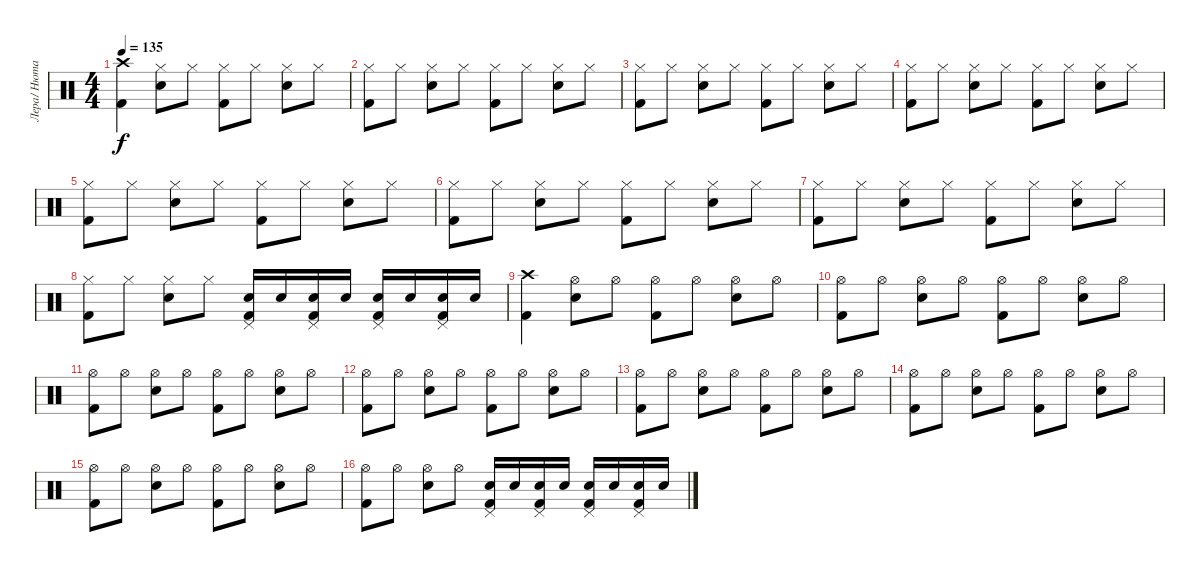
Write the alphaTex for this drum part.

\track ("Лера/ Нюта" "Лера/ Нюта") {instrument percussion}
\staff {score}
\articulation defaults
\ts (4 4)
\tempo 135
\clef neutral
\ks c
("Crash high (hit)" "Kick (hit) 2").4{dy f} ("Hi-Hat (closed)" "Electric Snare (hit)").8 "Hi-Hat (closed)".8 ("Hi-Hat (closed)" "Kick (hit) 2").8 "Hi-Hat (closed)".8 ("Hi-Hat (closed)" "Electric Snare (hit)").8 "Hi-Hat (closed)".8 |
("Hi-Hat (closed)" "Kick (hit) 2").8 "Hi-Hat (closed)".8 ("Hi-Hat (closed)" "Electric Snare (hit)").8 "Hi-Hat (closed)".8 ("Hi-Hat (closed)" "Kick (hit) 2").8 "Hi-Hat (closed)".8 ("Hi-Hat (closed)" "Electric Snare (hit)").8 "Hi-Hat (closed)".8 |
("Hi-Hat (closed)" "Kick (hit) 2").8 "Hi-Hat (closed)".8 ("Hi-Hat (closed)" "Electric Snare (hit)").8 "Hi-Hat (closed)".8 ("Hi-Hat (closed)" "Kick (hit) 2").8 "Hi-Hat (closed)".8 ("Hi-Hat (closed)" "Electric Snare (hit)").8 "Hi-Hat (closed)".8 |
("Hi-Hat (closed)" "Kick (hit) 2").8 "Hi-Hat (closed)".8 ("Hi-Hat (closed)" "Electric Snare (hit)").8 "Hi-Hat (closed)".8 ("Hi-Hat (closed)" "Kick (hit) 2").8 "Hi-Hat (closed)".8 ("Hi-Hat (closed)" "Electric Snare (hit)").8 "Hi-Hat (closed)".8 |
("Hi-Hat (closed)" "Kick (hit) 2").8 "Hi-Hat (closed)".8 ("Hi-Hat (closed)" "Electric Snare (hit)").8 "Hi-Hat (closed)".8 ("Hi-Hat (closed)" "Kick (hit) 2").8 "Hi-Hat (closed)".8 ("Hi-Hat (closed)" "Electric Snare (hit)").8 "Hi-Hat (closed)".8 |
("Hi-Hat (closed)" "Kick (hit) 2").8 "Hi-Hat (closed)".8 ("Hi-Hat (closed)" "Electric Snare (hit)").8 "Hi-Hat (closed)".8 ("Hi-Hat (closed)" "Kick (hit) 2").8 "Hi-Hat (closed)".8 ("Hi-Hat (closed)" "Electric Snare (hit)").8 "Hi-Hat (closed)".8 |
("Hi-Hat (closed)" "Kick (hit) 2").8 "Hi-Hat (closed)".8 ("Hi-Hat (closed)" "Electric Snare (hit)").8 "Hi-Hat (closed)".8 ("Hi-Hat (closed)" "Kick (hit) 2").8 "Hi-Hat (closed)".8 ("Hi-Hat (closed)" "Electric Snare (hit)").8 "Hi-Hat (closed)".8 |
("Hi-Hat (closed)" "Kick (hit) 2").8 "Hi-Hat (closed)".8 ("Hi-Hat (closed)" "Electric Snare (hit)").8 "Hi-Hat (closed)".8 ("Electric Snare (hit)" "Kick (hit) 2" "Pedal Hi-Hat (hit)").16 "Electric Snare (hit)".16 ("Electric Snare (hit)" "Kick (hit) 2" "Pedal Hi-Hat (hit)").16 "Electric Snare (hit)".16 ("Electric Snare (hit)" "Kick (hit) 2" "Pedal Hi-Hat (hit)").16 "Electric Snare (hit)".16 ("Electric Snare (hit)" "Kick (hit) 2" "Pedal Hi-Hat (hit)").16 "Electric Snare (hit)".16 |
("Crash high (hit)" "Kick (hit) 2").4 ("Hi-Hat (open)" "Electric Snare (hit)").8 "Hi-Hat (open)".8 ("Hi-Hat (open)" "Kick (hit) 2").8 "Hi-Hat (open)".8 ("Hi-Hat (open)" "Electric Snare (hit)").8 "Hi-Hat (open)".8 |
("Hi-Hat (open)" "Kick (hit) 2").8 "Hi-Hat (open)".8 ("Hi-Hat (open)" "Electric Snare (hit)").8 "Hi-Hat (open)".8 ("Hi-Hat (open)" "Kick (hit) 2").8 "Hi-Hat (open)".8 ("Hi-Hat (open)" "Electric Snare (hit)").8 "Hi-Hat (open)".8 |
("Hi-Hat (open)" "Kick (hit) 2").8 "Hi-Hat (open)".8 ("Hi-Hat (open)" "Electric Snare (hit)").8 "Hi-Hat (open)".8 ("Hi-Hat (open)" "Kick (hit) 2").8 "Hi-Hat (open)".8 ("Hi-Hat (open)" "Electric Snare (hit)").8 "Hi-Hat (open)".8 |
("Hi-Hat (open)" "Kick (hit) 2").8 "Hi-Hat (open)".8 ("Hi-Hat (open)" "Electric Snare (hit)").8 "Hi-Hat (open)".8 ("Hi-Hat (open)" "Kick (hit) 2").8 "Hi-Hat (open)".8 ("Hi-Hat (open)" "Electric Snare (hit)").8 "Hi-Hat (open)".8 |
("Hi-Hat (open)" "Kick (hit) 2").8 "Hi-Hat (open)".8 ("Hi-Hat (open)" "Electric Snare (hit)").8 "Hi-Hat (open)".8 ("Hi-Hat (open)" "Kick (hit) 2").8 "Hi-Hat (open)".8 ("Hi-Hat (open)" "Electric Snare (hit)").8 "Hi-Hat (open)".8 |
("Hi-Hat (open)" "Kick (hit) 2").8 "Hi-Hat (open)".8 ("Hi-Hat (open)" "Electric Snare (hit)").8 "Hi-Hat (open)".8 ("Hi-Hat (open)" "Kick (hit) 2").8 "Hi-Hat (open)".8 ("Hi-Hat (open)" "Electric Snare (hit)").8 "Hi-Hat (open)".8 |
("Hi-Hat (open)" "Kick (hit) 2").8 "Hi-Hat (open)".8 ("Hi-Hat (open)" "Electric Snare (hit)").8 "Hi-Hat (open)".8 ("Hi-Hat (open)" "Kick (hit) 2").8 "Hi-Hat (open)".8 ("Hi-Hat (open)" "Electric Snare (hit)").8 "Hi-Hat (open)".8 |
("Hi-Hat (open)" "Kick (hit) 2").8 "Hi-Hat (open)".8 ("Hi-Hat (open)" "Electric Snare (hit)").8 "Hi-Hat (open)".8 ("Electric Snare (hit)" "Kick (hit) 2" "Pedal Hi-Hat (hit)").16 "Electric Snare (hit)".16 ("Electric Snare (hit)" "Kick (hit) 2" "Pedal Hi-Hat (hit)").16 "Electric Snare (hit)".16 ("Electric Snare (hit)" "Kick (hit) 2" "Pedal Hi-Hat (hit)").16 "Electric Snare (hit)".16 ("Electric Snare (hit)" "Kick (hit) 2" "Pedal Hi-Hat (hit)").16 "Electric Snare (hit)".16
